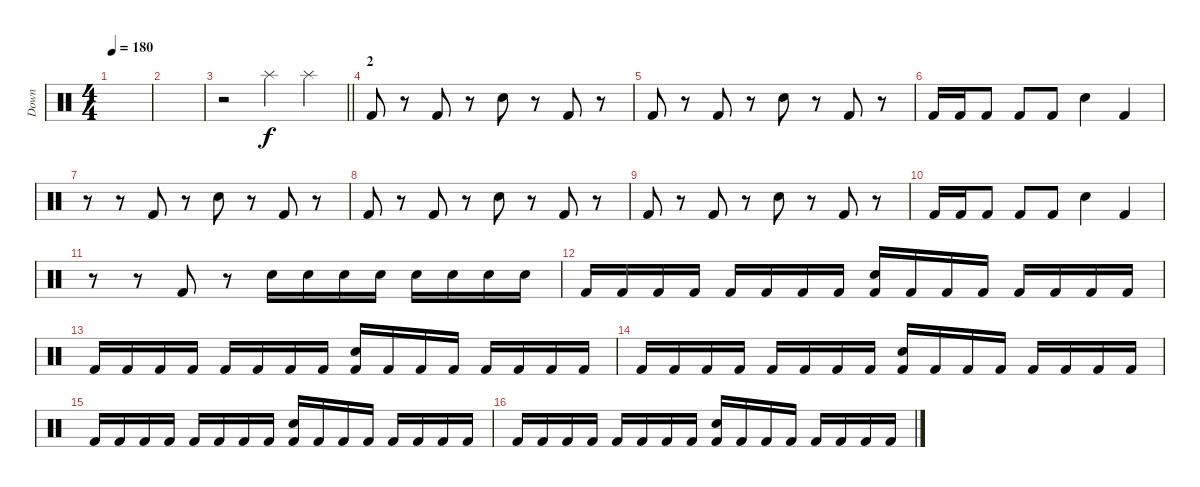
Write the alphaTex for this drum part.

\track ("Down" "Down") {instrument percussion}
\staff {score}
\articulation defaults
\ts (4 4)
\tempo 180
\clef neutral
\ks c
|
|
\barLineRight lightlight
r.2 "Splash (hit)".4 "Splash (hit)".4 |
\section ("" "2")
"Kick (hit) 2".8 r.8 "Kick (hit) 2".8 r.8 "Electric Snare (hit)".8 r.8 "Kick (hit) 2".8 r.8 |
"Kick (hit) 2".8 r.8 "Kick (hit) 2".8 r.8 "Electric Snare (hit)".8 r.8 "Kick (hit) 2".8 r.8 |
"Kick (hit) 2".16 "Kick (hit) 2".16 "Kick (hit) 2".8 "Kick (hit) 2".8 "Kick (hit) 2".8 "Electric Snare (hit)".4 "Kick (hit) 2".4 |
r.8 r.8 "Kick (hit) 2".8 r.8 "Electric Snare (hit)".8 r.8 "Kick (hit) 2".8 r.8 |
"Kick (hit) 2".8 r.8 "Kick (hit) 2".8 r.8 "Electric Snare (hit)".8 r.8 "Kick (hit) 2".8 r.8 |
"Kick (hit) 2".8 r.8 "Kick (hit) 2".8 r.8 "Electric Snare (hit)".8 r.8 "Kick (hit) 2".8 r.8 |
"Kick (hit) 2".16 "Kick (hit) 2".16 "Kick (hit) 2".8 "Kick (hit) 2".8 "Kick (hit) 2".8 "Electric Snare (hit)".4 "Kick (hit) 2".4 |
r.8 r.8 "Kick (hit) 2".8 r.8 "Electric Snare (hit)".16 "Electric Snare (hit)".16 "Electric Snare (hit)".16 "Electric Snare (hit)".16 "Electric Snare (hit)".16 "Electric Snare (hit)".16 "Electric Snare (hit)".16 "Electric Snare (hit)".16 |
"Kick (hit) 2".16 "Kick (hit) 2".16 "Kick (hit) 2".16 "Kick (hit) 2".16 "Kick (hit) 2".16 "Kick (hit) 2".16 "Kick (hit) 2".16 "Kick (hit) 2".16 ("Electric Snare (hit)" "Kick (hit) 2").16 "Kick (hit) 2".16 "Kick (hit) 2".16 "Kick (hit) 2".16 "Kick (hit) 2".16 "Kick (hit) 2".16 "Kick (hit) 2".16 "Kick (hit) 2".16 |
"Kick (hit) 2".16 "Kick (hit) 2".16 "Kick (hit) 2".16 "Kick (hit) 2".16 "Kick (hit) 2".16 "Kick (hit) 2".16 "Kick (hit) 2".16 "Kick (hit) 2".16 ("Electric Snare (hit)" "Kick (hit) 2").16 "Kick (hit) 2".16 "Kick (hit) 2".16 "Kick (hit) 2".16 "Kick (hit) 2".16 "Kick (hit) 2".16 "Kick (hit) 2".16 "Kick (hit) 2".16 |
"Kick (hit) 2".16 "Kick (hit) 2".16 "Kick (hit) 2".16 "Kick (hit) 2".16 "Kick (hit) 2".16 "Kick (hit) 2".16 "Kick (hit) 2".16 "Kick (hit) 2".16 ("Electric Snare (hit)" "Kick (hit) 2").16 "Kick (hit) 2".16 "Kick (hit) 2".16 "Kick (hit) 2".16 "Kick (hit) 2".16 "Kick (hit) 2".16 "Kick (hit) 2".16 "Kick (hit) 2".16 |
"Kick (hit) 2".16 "Kick (hit) 2".16 "Kick (hit) 2".16 "Kick (hit) 2".16 "Kick (hit) 2".16 "Kick (hit) 2".16 "Kick (hit) 2".16 "Kick (hit) 2".16 ("Electric Snare (hit)" "Kick (hit) 2").16 "Kick (hit) 2".16 "Kick (hit) 2".16 "Kick (hit) 2".16 "Kick (hit) 2".16 "Kick (hit) 2".16 "Kick (hit) 2".16 "Kick (hit) 2".16 |
"Kick (hit) 2".16 "Kick (hit) 2".16 "Kick (hit) 2".16 "Kick (hit) 2".16 "Kick (hit) 2".16 "Kick (hit) 2".16 "Kick (hit) 2".16 "Kick (hit) 2".16 ("Electric Snare (hit)" "Kick (hit) 2").16 "Kick (hit) 2".16 "Kick (hit) 2".16 "Kick (hit) 2".16 "Kick (hit) 2".16 "Kick (hit) 2".16 "Kick (hit) 2".16 "Kick (hit) 2".16
